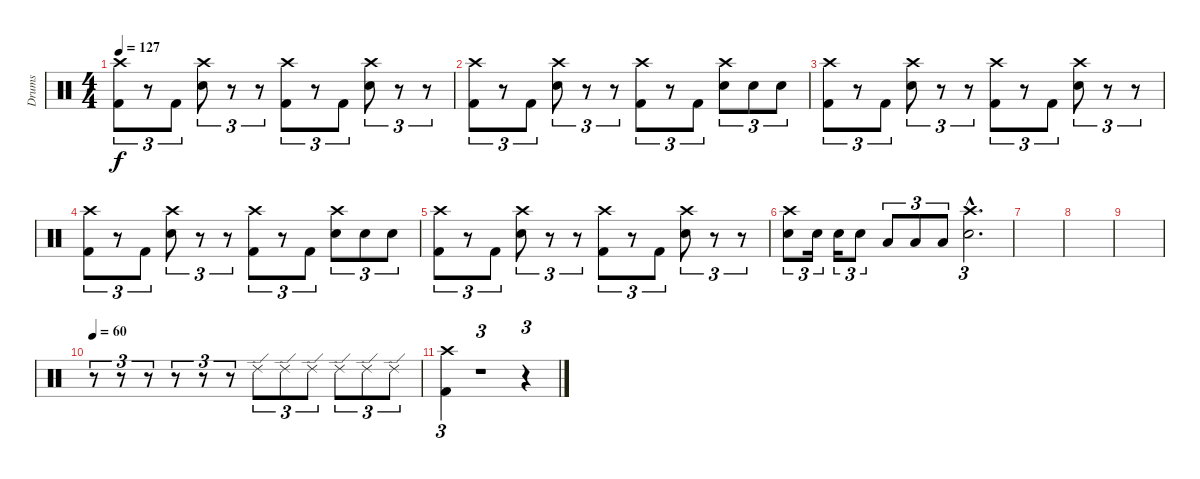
\track ("Drums" "Drums") {instrument percussion}
\staff {score}
\articulation defaults
\ts (4 4)
\tempo 127
\clef neutral
\ks c
("Crash high (hit)" "Kick (hit) 2").8{tu (3 2) dy f} r.8{tu (3 2)} "Kick (hit) 2".8{tu (3 2)} ("Crash high (hit)" "Electric Snare (hit)").8{tu (3 2)} r.8{tu (3 2)} r.8{tu (3 2)} ("Crash high (hit)" "Kick (hit) 2").8{tu (3 2)} r.8{tu (3 2)} "Kick (hit) 2".8{tu (3 2)} ("Crash high (hit)" "Electric Snare (hit)").8{tu (3 2)} r.8{tu (3 2)} r.8{tu (3 2)} |
("Crash high (hit)" "Kick (hit) 2").8{tu (3 2)} r.8{tu (3 2)} "Kick (hit) 2".8{tu (3 2)} ("Crash high (hit)" "Electric Snare (hit)").8{tu (3 2)} r.8{tu (3 2)} r.8{tu (3 2)} ("Crash high (hit)" "Kick (hit) 2").8{tu (3 2)} r.8{tu (3 2)} "Kick (hit) 2".8{tu (3 2)} ("Crash high (hit)" "Electric Snare (hit)").8{tu (3 2)} "Electric Snare (hit)".8{tu (3 2)} "Electric Snare (hit)".8{tu (3 2)} |
("Crash high (hit)" "Kick (hit) 2").8{tu (3 2)} r.8{tu (3 2)} "Kick (hit) 2".8{tu (3 2)} ("Crash high (hit)" "Electric Snare (hit)").8{tu (3 2)} r.8{tu (3 2)} r.8{tu (3 2)} ("Crash high (hit)" "Kick (hit) 2").8{tu (3 2)} r.8{tu (3 2)} "Kick (hit) 2".8{tu (3 2)} ("Crash high (hit)" "Electric Snare (hit)").8{tu (3 2)} r.8{tu (3 2)} r.8{tu (3 2)} |
("Crash high (hit)" "Kick (hit) 2").8{tu (3 2)} r.8{tu (3 2)} "Kick (hit) 2".8{tu (3 2)} ("Crash high (hit)" "Electric Snare (hit)").8{tu (3 2)} r.8{tu (3 2)} r.8{tu (3 2)} ("Crash high (hit)" "Kick (hit) 2").8{tu (3 2)} r.8{tu (3 2)} "Kick (hit) 2".8{tu (3 2)} ("Crash high (hit)" "Electric Snare (hit)").8{tu (3 2)} "Electric Snare (hit)".8{tu (3 2)} "Electric Snare (hit)".8{tu (3 2)} |
("Crash high (hit)" "Kick (hit) 2").8{tu (3 2)} r.8{tu (3 2)} "Kick (hit) 2".8{tu (3 2)} ("Crash high (hit)" "Electric Snare (hit)").8{tu (3 2)} r.8{tu (3 2)} r.8{tu (3 2)} ("Crash high (hit)" "Kick (hit) 2").8{tu (3 2)} r.8{tu (3 2)} "Kick (hit) 2".8{tu (3 2)} ("Crash high (hit)" "Electric Snare (hit)").8{tu (3 2)} r.8{tu (3 2)} r.8{tu (3 2)} |
("Crash high (hit)" "Electric Snare (hit)").8{tu (3 2)} "Electric Snare (hit)".16{tu (3 2)} "Electric Snare (hit)".16{tu (3 2)} "Electric Snare (hit)".8{tu (3 2)} "Low Tom (hit)".8{tu (3 2)} "Low Tom (hit)".8{tu (3 2)} "Low Tom (hit)".8{tu (3 2)} ("Crash high (hit)"{hac} "Electric Snare (hit)"{hac}).2{d tu (3 2)} |
|
|
|
\tempo 60
r.8{tu (3 2)} r.8{tu (3 2)} r.8{tu (3 2)} r.8{tu (3 2)} r.8{tu (3 2)} r.8{tu (3 2)} "Ride (edge) 2".8{tu (3 2)} "Ride (edge) 2".8{tu (3 2)} "Ride (edge) 2".8{tu (3 2)} "Ride (edge) 2".8{tu (3 2)} "Ride (edge) 2".8{tu (3 2)} "Ride (edge) 2".8{tu (3 2)} |
("Crash high (hit)" "Kick (hit) 2").4{tu (3 2) volume 13} r.1{tu (3 2)} r.4{tu (3 2)}
